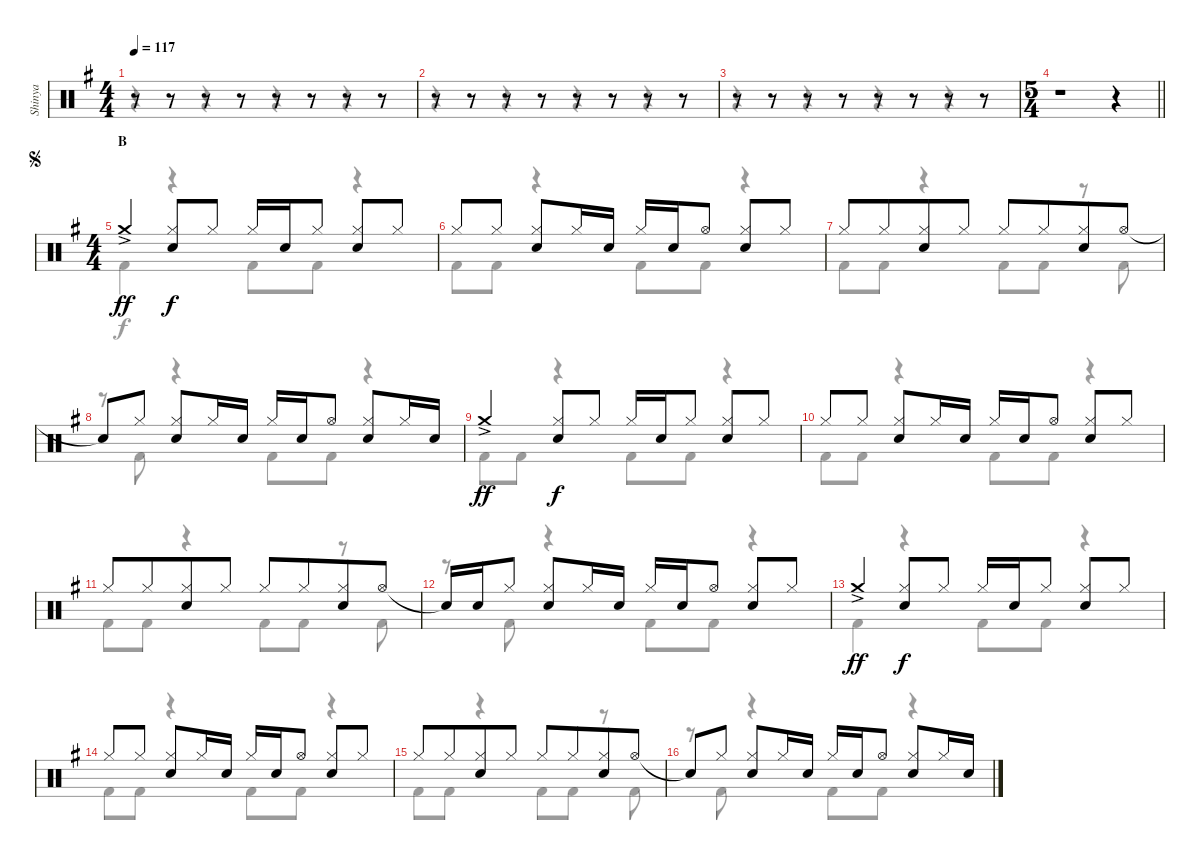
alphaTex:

\track ("Shinya" "Shinya") {instrument percussion}
\staff {score}
\articulation defaults
\voice
\ts (4 4)
\tempo 117
\clef neutral
\ks eminor
r.8{dy ff} r.8 r.8 r.8 r.8 r.8 r.8 r.8 |
r.8 r.8 r.8 r.8 r.8 r.8 r.8 r.8 |
r.8 r.8 r.8 r.8 r.8 r.8 r.8 r.8 |
\ts (5 4)
\barLineRight lightlight
r.1 r.4 |
\ts (4 4)
\section ("" "B")
\jump segno "Crash medium (hit)"{ac}.4
("Hi-Hat (closed)" "Snare (hit) 2").8{dy f} "Hi-Hat (closed)".8 "Hi-Hat (closed)".16 "Snare (hit) 2".16 "Hi-Hat (closed)".8 ("Hi-Hat (closed)" "Snare (hit) 2").8 "Hi-Hat (closed)".8 |
"Hi-Hat (closed)".8 "Hi-Hat (closed)".8 ("Hi-Hat (closed)" "Snare (hit) 2").8 "Hi-Hat (closed)".16 "Snare (hit) 2".16 "Hi-Hat (closed)".16 "Snare (hit) 2".16 "Hi-Hat (open)".8 ("Hi-Hat (closed)" "Snare (hit) 2").8 "Hi-Hat (closed)".8 |
"Hi-Hat (closed)".8 "Hi-Hat (closed)".8{beam merge} ("Hi-Hat (closed)" "Snare (hit) 2").8 "Hi-Hat (closed)".8 "Hi-Hat (closed)".8 "Hi-Hat (closed)".8{beam merge} ("Hi-Hat (closed)" "Snare (hit) 2").8 "Hi-Hat (open)".8 |
"Snare (hit)"{t}.8 "Hi-Hat (closed)".8 ("Hi-Hat (closed)" "Snare (hit) 2").8 "Hi-Hat (closed)".16 "Snare (hit) 2".16 "Hi-Hat (closed)".16 "Snare (hit) 2".16 "Hi-Hat (open)".8 ("Hi-Hat (closed)" "Snare (hit) 2").8 "Hi-Hat (closed)".16 "Snare (hit) 2".16 |
"Crash medium (hit)"{ac}.4{dy ff} ("Hi-Hat (closed)" "Snare (hit) 2").8{dy f} "Hi-Hat (closed)".8 "Hi-Hat (closed)".16 "Snare (hit) 2".16 "Hi-Hat (closed)".8 ("Hi-Hat (closed)" "Snare (hit) 2").8 "Hi-Hat (closed)".8 |
"Hi-Hat (closed)".8 "Hi-Hat (closed)".8 ("Hi-Hat (closed)" "Snare (hit) 2").8 "Hi-Hat (closed)".16 "Snare (hit) 2".16 "Hi-Hat (closed)".16 "Snare (hit) 2".16 "Hi-Hat (open)".8 ("Hi-Hat (closed)" "Snare (hit) 2").8 "Hi-Hat (closed)".8 |
"Hi-Hat (closed)".8 "Hi-Hat (closed)".8{beam merge} ("Hi-Hat (closed)" "Snare (hit) 2").8 "Hi-Hat (closed)".8 "Hi-Hat (closed)".8 "Hi-Hat (closed)".8{beam merge} ("Hi-Hat (closed)" "Snare (hit) 2").8 "Hi-Hat (open)".8 |
"Snare (hit)"{t}.16 "Snare (hit) 2".16 "Hi-Hat (closed)".8 ("Hi-Hat (closed)" "Snare (hit) 2").8 "Hi-Hat (closed)".16 "Snare (hit) 2".16 "Hi-Hat (closed)".16 "Snare (hit) 2".16 "Hi-Hat (open)".8 ("Hi-Hat (closed)" "Snare (hit) 2").8 "Hi-Hat (closed)".8 |
"Crash medium (hit)"{ac}.4{dy ff} ("Hi-Hat (closed)" "Snare (hit) 2").8{dy f} "Hi-Hat (closed)".8 "Hi-Hat (closed)".16 "Snare (hit) 2".16 "Hi-Hat (closed)".8 ("Hi-Hat (closed)" "Snare (hit) 2").8 "Hi-Hat (closed)".8 |
"Hi-Hat (closed)".8 "Hi-Hat (closed)".8 ("Hi-Hat (closed)" "Snare (hit) 2").8 "Hi-Hat (closed)".16 "Snare (hit) 2".16 "Hi-Hat (closed)".16 "Snare (hit) 2".16 "Hi-Hat (open)".8 ("Hi-Hat (closed)" "Snare (hit) 2").8 "Hi-Hat (closed)".8 |
"Hi-Hat (closed)".8 "Hi-Hat (closed)".8{beam merge} ("Hi-Hat (closed)" "Snare (hit) 2").8 "Hi-Hat (closed)".8 "Hi-Hat (closed)".8 "Hi-Hat (closed)".8{beam merge} ("Hi-Hat (closed)" "Snare (hit) 2").8 "Hi-Hat (open)".8 |
"Snare (hit)"{t}.8 "Hi-Hat (closed)".8 ("Hi-Hat (closed)" "Snare (hit) 2").8 "Hi-Hat (closed)".16 "Snare (hit) 2".16 "Hi-Hat (closed)".16 "Snare (hit) 2".16 "Hi-Hat (open)".8 ("Hi-Hat (closed)" "Snare (hit) 2").8 "Hi-Hat (closed)".16 "Snare (hit) 2".16
\voice
\clef neutral
\ottava regular
\simile none
\ks eminor
r.4{dy f} r.4 r.4 r.4 |
r.4 r.4 r.4 r.4 |
r.4 r.4 r.4 r.4 |
\barLineRight lightlight
r.1 r.4 |
"Kick (hit) 2".4 r.4 "Kick (hit) 2".8 "Kick (hit) 2".8 r.4 |
"Kick (hit) 2".8 "Kick (hit) 2".8 r.4 "Kick (hit) 2".8 "Kick (hit) 2".8 r.4 |
"Kick (hit) 2".8 "Kick (hit) 2".8 r.4 "Kick (hit) 2".8 "Kick (hit) 2".8 r.8 "Kick (hit) 2".8 |
r.8 "Kick (hit) 2".8 r.4 "Kick (hit) 2".8 "Kick (hit) 2".8 r.4 |
"Kick (hit) 2".8 "Kick (hit) 2".8 r.4 "Kick (hit) 2".8 "Kick (hit) 2".8 r.4 |
"Kick (hit) 2".8 "Kick (hit) 2".8 r.4 "Kick (hit) 2".8 "Kick (hit) 2".8 r.4 |
"Kick (hit) 2".8 "Kick (hit) 2".8 r.4 "Kick (hit) 2".8 "Kick (hit) 2".8 r.8 "Kick (hit) 2".8 |
r.8 "Kick (hit) 2".8 r.4 "Kick (hit) 2".8 "Kick (hit) 2".8 r.4 |
"Kick (hit) 2".4 r.4 "Kick (hit) 2".8 "Kick (hit) 2".8 r.4 |
"Kick (hit) 2".8 "Kick (hit) 2".8 r.4 "Kick (hit) 2".8 "Kick (hit) 2".8 r.4 |
"Kick (hit) 2".8 "Kick (hit) 2".8 r.4 "Kick (hit) 2".8 "Kick (hit) 2".8 r.8 "Kick (hit) 2".8 |
r.8 "Kick (hit) 2".8 r.4 "Kick (hit) 2".8 "Kick (hit) 2".8 r.4
